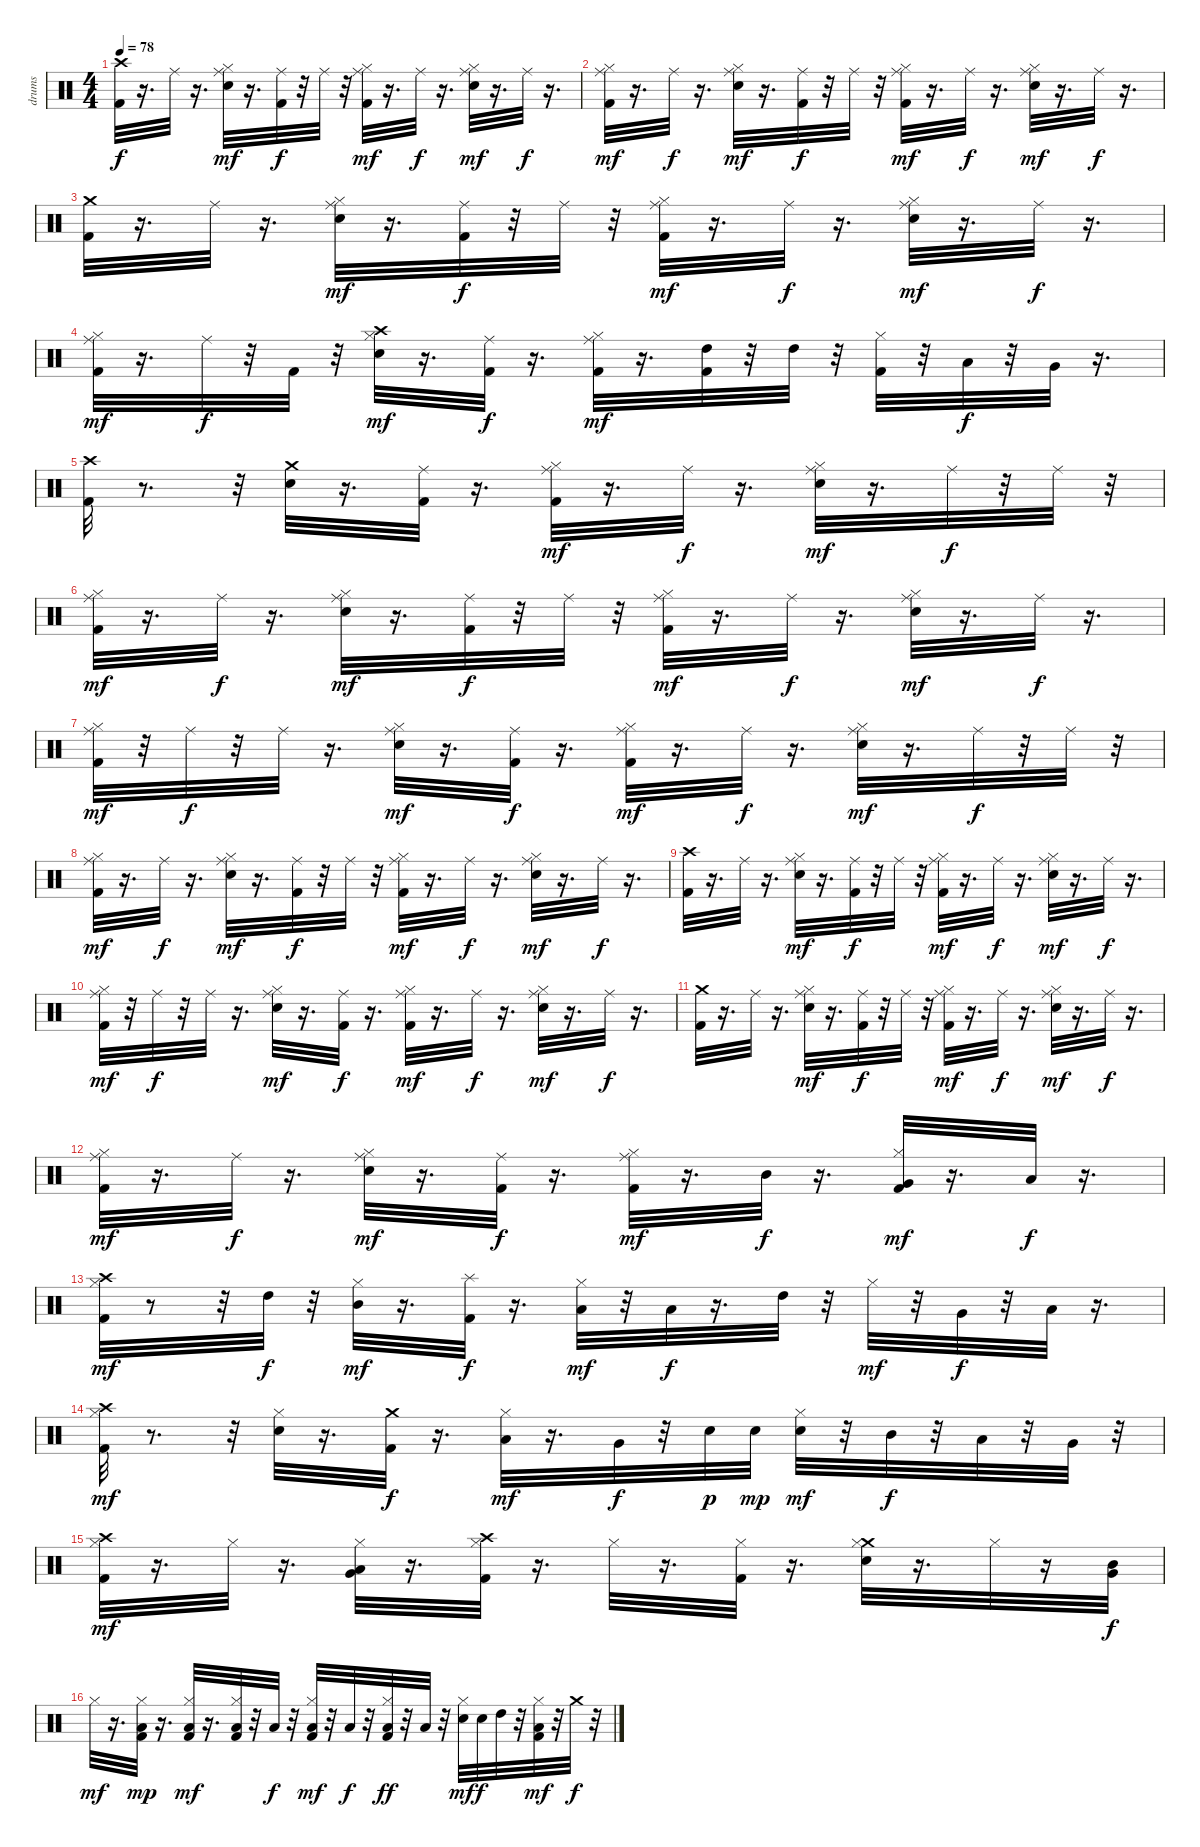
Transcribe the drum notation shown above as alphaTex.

\track ("drums" "drums") {instrument percussion}
\staff {score}
\articulation defaults
\ts (4 4)
\tempo 78
\clef neutral
\ks c
("Crash high (hit)" "Kick (hit) 2").32{dy f} r.16{d} "Ride (middle)".32 r.16{d} ("Ride (middle)" "Hi-Hat (closed)" "Electric Snare (hit)").32{dy mf} r.16{d} ("Ride (middle)" "Kick (hit) 2").32{dy f} r.32 "Ride (middle)".32 r.32 ("Ride (middle)" "Hi-Hat (closed)" "Kick (hit) 2").32{dy mf} r.16{d} "Ride (middle)".32{dy f} r.16{d} ("Ride (middle)" "Hi-Hat (closed)" "Electric Snare (hit)").32{dy mf} r.16{d} "Ride (middle)".32{dy f} r.16{d} |
("Ride (middle)" "Hi-Hat (closed)" "Kick (hit) 2").32{dy mf} r.16{d} "Ride (middle)".32{dy f} r.16{d} ("Ride (middle)" "Hi-Hat (closed)" "Electric Snare (hit)").32{dy mf} r.16{d} ("Ride (middle)" "Kick (hit) 2").32{dy f} r.32 "Ride (middle)".32 r.32 ("Ride (middle)" "Hi-Hat (closed)" "Kick (hit) 2").32{dy mf} r.16{d} "Ride (middle)".32{dy f} r.16{d} ("Ride (middle)" "Hi-Hat (closed)" "Electric Snare (hit)").32{dy mf} r.16{d} "Ride (middle)".32{dy f} r.16{d} |
("Crash medium (hit)" "Kick (hit) 2").32 r.16{d} "Ride (middle)".32 r.16{d} ("Ride (middle)" "Hi-Hat (closed)" "Electric Snare (hit)").32{dy mf} r.16{d} ("Ride (middle)" "Kick (hit) 2").32{dy f} r.32 "Ride (middle)".32 r.32 ("Hi-Hat (closed)" "Ride (middle)" "Kick (hit) 2").32{dy mf} r.16{d} "Ride (middle)".32{dy f} r.16{d} ("Ride (middle)" "Electric Snare (hit)" "Hi-Hat (closed)").32{dy mf} r.16{d} "Ride (middle)".32{dy f} r.16{d} |
("Ride (middle)" "Hi-Hat (closed)" "Kick (hit) 2").32{dy mf} r.16{d} "Ride (middle)".32{dy f} r.32 "Kick (hit) 2".32 r.32 ("Hi-Hat (closed)" "Electric Snare (hit)" "Crash high (hit)").32{dy mf} r.16{d} ("Ride (middle)" "Kick (hit) 2").32{dy f} r.16{d} ("Ride (middle)" "Hi-Hat (closed)" "Kick (hit) 2").32{dy mf} r.16{d} ("Kick (hit) 2" "High Tom (hit)").32 r.32 "High Tom (hit)".32 r.32 ("Kick (hit) 2" "Hi-Hat (closed)").32 r.32 "Low Tom (hit)".32{dy f} r.32 "Very Low Tom (hit)".32 r.16{d} |
("Crash high (hit)" "Kick (hit) 2").32 r.8{d} r.32 ("Crash medium (hit)" "Electric Snare (hit)").32 r.16{d} ("Ride (middle)" "Kick (hit) 2").32 r.16{d} ("Ride (middle)" "Kick (hit) 2" "Hi-Hat (closed)").32{dy mf} r.16{d} "Ride (middle)".32{dy f} r.16{d} ("Electric Snare (hit)" "Ride (middle)" "Hi-Hat (closed)").32{dy mf} r.16{d} "Ride (middle)".32{dy f} r.32 "Ride (middle)".32 r.32 |
("Kick (hit) 2" "Ride (middle)" "Hi-Hat (closed)").32{dy mf} r.16{d} "Ride (middle)".32{dy f} r.16{d} ("Hi-Hat (closed)" "Electric Snare (hit)" "Ride (middle)").32{dy mf} r.16{d} ("Kick (hit) 2" "Ride (middle)").32{dy f} r.32 "Ride (middle)".32 r.32 ("Hi-Hat (closed)" "Ride (middle)" "Kick (hit) 2").32{dy mf} r.16{d} "Ride (middle)".32{dy f} r.16{d} ("Hi-Hat (closed)" "Ride (middle)" "Electric Snare (hit)").32{dy mf} r.16{d} "Ride (middle)".32{dy f} r.16{d} |
("Kick (hit) 2" "Ride (middle)" "Hi-Hat (closed)").32{dy mf} r.32 "Ride (middle)".32{dy f} r.32 "Ride (middle)".32 r.16{d} ("Hi-Hat (closed)" "Electric Snare (hit)" "Ride (middle)").32{dy mf} r.16{d} ("Ride (middle)" "Kick (hit) 2").32{dy f} r.16{d} ("Kick (hit) 2" "Hi-Hat (closed)" "Ride (middle)").32{dy mf} r.16{d} "Ride (middle)".32{dy f} r.16{d} ("Hi-Hat (closed)" "Electric Snare (hit)" "Ride (middle)").32{dy mf} r.16{d} "Ride (middle)".32{dy f} r.32 "Ride (middle)".32 r.32 |
("Ride (middle)" "Kick (hit) 2" "Hi-Hat (closed)").32{dy mf} r.16{d} "Ride (middle)".32{dy f} r.16{d} ("Electric Snare (hit)" "Hi-Hat (closed)" "Ride (middle)").32{dy mf} r.16{d} ("Ride (middle)" "Kick (hit) 2").32{dy f} r.32 "Ride (middle)".32 r.32 ("Ride (middle)" "Hi-Hat (closed)" "Kick (hit) 2").32{dy mf} r.16{d} "Ride (middle)".32{dy f} r.16{d} ("Hi-Hat (closed)" "Electric Snare (hit)" "Ride (middle)").32{dy mf} r.16{d} "Ride (middle)".32{dy f} r.16{d} |
("Crash high (hit)" "Kick (hit) 2").32 r.16{d} "Ride (middle)".32 r.16{d} ("Ride (middle)" "Electric Snare (hit)" "Hi-Hat (closed)").32{dy mf} r.16{d} ("Kick (hit) 2" "Ride (middle)").32{dy f} r.32 "Ride (middle)".32 r.32 ("Kick (hit) 2" "Ride (middle)" "Hi-Hat (closed)").32{dy mf} r.16{d} "Ride (middle)".32{dy f} r.16{d} ("Hi-Hat (closed)" "Ride (middle)" "Electric Snare (hit)").32{dy mf} r.16{d} "Ride (middle)".32{dy f} r.16{d} |
("Hi-Hat (closed)" "Ride (middle)" "Kick (hit) 2").32{dy mf} r.32 "Ride (middle)".32{dy f} r.32 "Ride (middle)".32 r.16{d} ("Electric Snare (hit)" "Ride (middle)" "Hi-Hat (closed)").32{dy mf} r.16{d} ("Ride (middle)" "Kick (hit) 2").32{dy f} r.16{d} ("Hi-Hat (closed)" "Ride (middle)" "Kick (hit) 2").32{dy mf} r.16{d} "Ride (middle)".32{dy f} r.16{d} ("Ride (middle)" "Electric Snare (hit)" "Hi-Hat (closed)").32{dy mf} r.16{d} "Ride (middle)".32{dy f} r.16{d} |
("Crash medium (hit)" "Kick (hit) 2").32 r.16{d} "Ride (middle)".32 r.16{d} ("Ride (middle)" "Electric Snare (hit)" "Hi-Hat (closed)").32{dy mf} r.16{d} ("Kick (hit) 2" "Ride (middle)").32{dy f} r.32 "Ride (middle)".32 r.32 ("Kick (hit) 2" "Ride (middle)" "Hi-Hat (closed)").32{dy mf} r.16{d} "Ride (middle)".32{dy f} r.16{d} ("Electric Snare (hit)" "Ride (middle)" "Hi-Hat (closed)").32{dy mf} r.16{d} "Ride (middle)".32{dy f} r.16{d} |
("Ride (middle)" "Hi-Hat (closed)" "Kick (hit) 2").32{dy mf} r.16{d} "Ride (middle)".32{dy f} r.16{d} ("Electric Snare (hit)" "Ride (middle)" "Hi-Hat (closed)").32{dy mf} r.16{d} ("Kick (hit) 2" "Ride (middle)").32{dy f} r.16{d} ("Hi-Hat (closed)" "Ride (middle)" "Kick (hit) 2").32{dy mf} r.16{d} "Mid Tom (hit)".32{dy f} r.16{d} ("Kick (hit) 2" "Hi-Hat (closed)" "Very Low Tom (hit)").32{dy mf} r.16{d} "Low Floor Tom (hit)".32{dy f} r.16{d} |
("Kick (hit) 2" "Crash high (hit)" "Hi-Hat (closed)").32{dy mf} r.8 r.32 "High Tom (hit)".32{dy f} r.32 ("Hi-Hat (closed)" "Mid Tom (hit)").32{dy mf} r.16{d} ("Splash (hit)" "Kick (hit) 2").32{dy f} r.16{d} ("Low Tom (hit)" "Hi-Hat (closed)").32{dy mf} r.32 "Low Tom (hit)".32{dy f} r.16{d} "High Tom (hit)".32 r.32 "Hi-Hat (closed)".32{dy mf} r.32 "Very Low Tom (hit)".32{dy f} r.32 "Low Floor Tom (hit)".32 r.16{d} |
("Kick (hit) 2" "Crash high (hit)" "Hi-Hat (closed)").32{dy mf} r.8{d} r.32 ("Electric Snare (hit)" "Hi-Hat (closed)").32 r.16{d} ("Crash medium (hit)" "Kick (hit) 2").32{dy f} r.16{d} ("Hi-Hat (closed)" "Low Tom (hit)").32{dy mf} r.16{d} "Very Low Tom (hit)".32{dy f} r.32 "Electric Snare (hit)".32{dy p} "Electric Snare (hit)".32{dy mp} ("Hi-Hat (closed)" "Electric Snare (hit)").32{dy mf} r.32 "Mid Tom (hit)".32{dy f} r.32 "Low Tom (hit)".32 r.32 "Very Low Tom (hit)".32 r.32 |
("Crash high (hit)" "Kick (hit) 2" "Hi-Hat (closed)").32{dy mf} r.16{d} "Hi-Hat (closed)".32 r.16{d} ("Very Low Tom (hit)" "Low Tom (hit)" "Hi-Hat (closed)").32 r.16{d} ("Kick (hit) 2" "Crash high (hit)" "Hi-Hat (closed)").32 r.16{d} "Hi-Hat (closed)".32 r.16{d} ("Kick (hit) 2" "Hi-Hat (closed)").32 r.16{d} ("Electric Snare (hit)" "Crash medium (hit)" "Hi-Hat (closed)").32 r.16{d} "Hi-Hat (closed)".32 r.16 ("Mid Tom (hit)" "Very Low Tom (hit)").32{dy f} |
"Hi-Hat (closed)".32{dy mf} r.16{d} ("Kick (hit) 2" "Hi-Hat (closed)" "Low Floor Tom (hit)").32{dy mp} r.16{d} ("Low Floor Tom (hit)" "Kick (hit) 2" "Hi-Hat (closed)").32{dy mf} r.16{d} ("Kick (hit) 2" "Hi-Hat (closed)" "Low Floor Tom (hit)").32 r.32 "Low Floor Tom (hit)".32{dy f} r.32 ("Kick (hit) 2" "Low Floor Tom (hit)" "Hi-Hat (closed)").32{dy mf} r.32 "Low Floor Tom (hit)".32{dy f} r.32 ("Kick (hit) 2" "Hi-Hat (closed)" "Low Floor Tom (hit)").32{dy ff} r.32 "Low Floor Tom (hit)".32 r.32 ("Hi-Hat (closed)" "Electric Snare (hit)").32{dy mf} "Electric Snare (hit)".32{dy f} "High Tom (hit)".32 r.32 ("Hi-Hat (closed)" "Kick (hit) 2" "Low Tom (hit)").32{dy mf} r.32 "Crash medium (hit)".32{dy f} r.32
